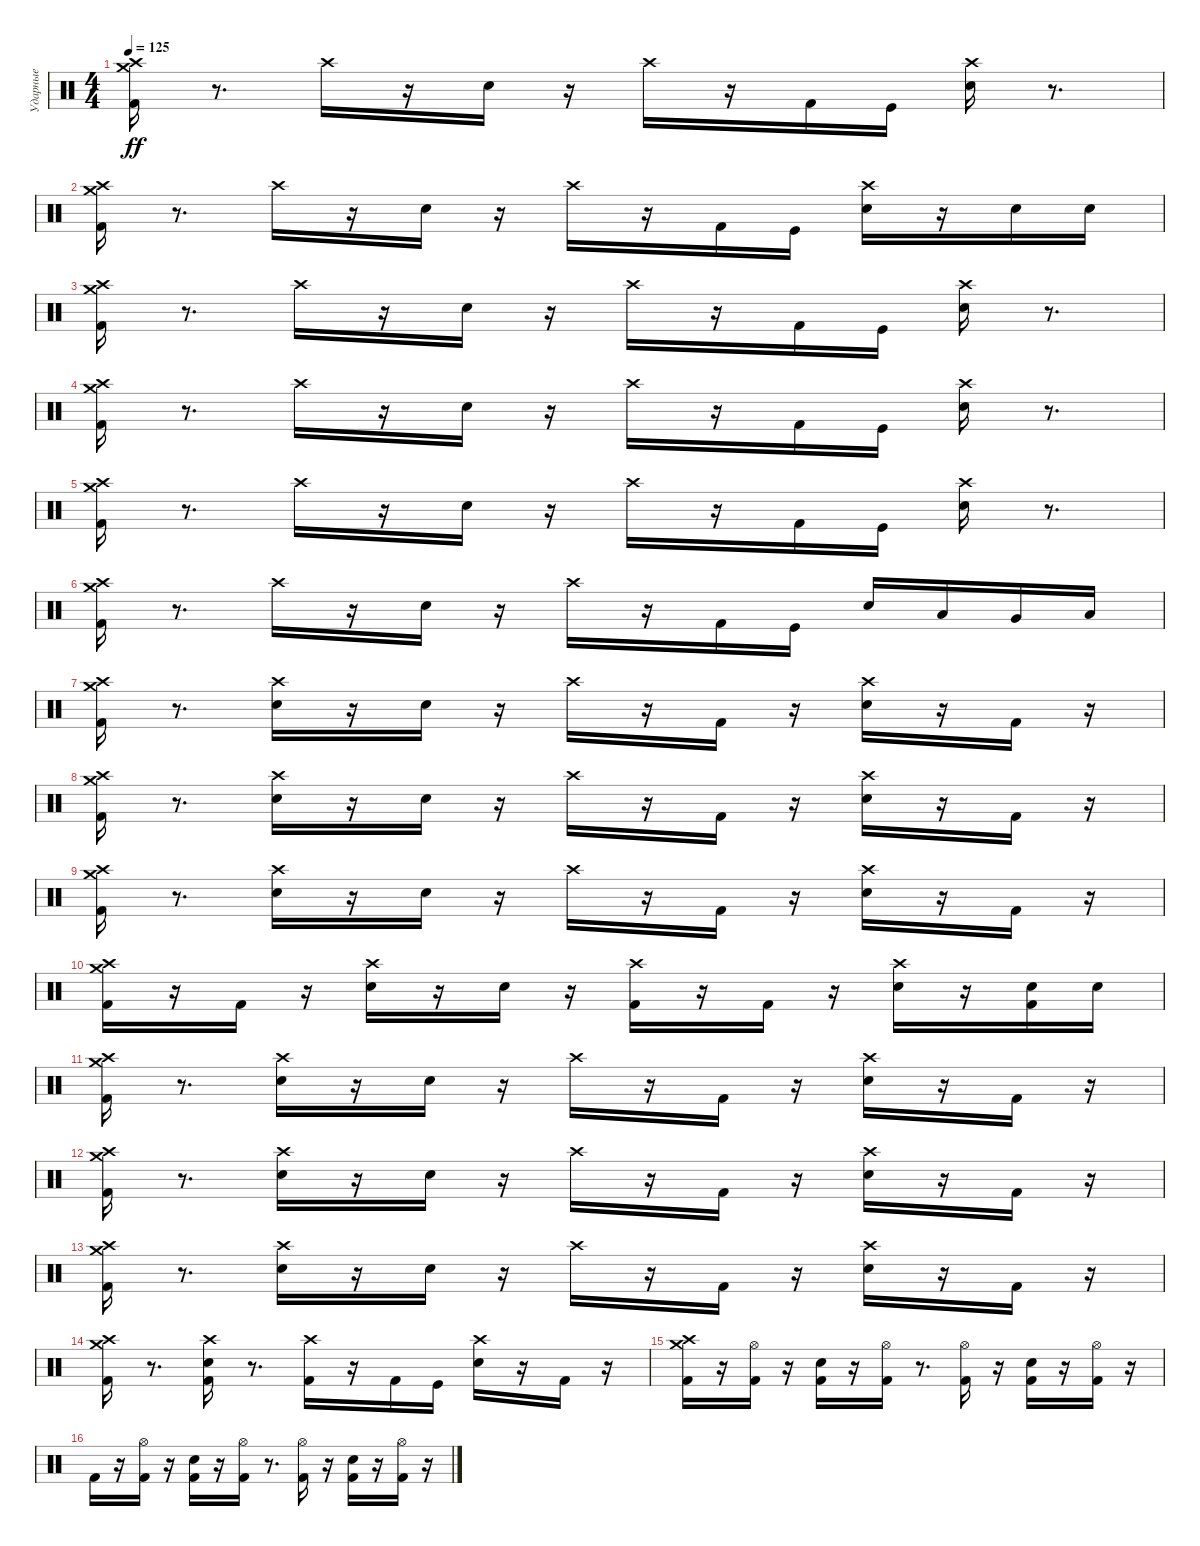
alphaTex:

\track ("Ударные" "Ударные") {instrument percussion}
\staff {score}
\articulation defaults
\ts (4 4)
\tempo 125
\clef neutral
\ks c
("Crash medium (hit)" "Crash high (hit)" "Kick (hit) 2").16{dy ff} r.8{d} "Crash high (hit)".16 r.16 "Snare (hit) 2".16 r.16 "Crash high (hit)".16 r.16 "Kick (hit) 2".16 "Kick (hit)".16 ("Snare (hit) 2" "Crash high (hit)").16 r.8{d} |
("Crash medium (hit)" "Crash high (hit)" "Kick (hit) 2").16 r.8{d} "Crash high (hit)".16 r.16 "Snare (hit) 2".16 r.16 "Crash high (hit)".16 r.16 "Kick (hit) 2".16 "Kick (hit)".16 ("Crash high (hit)" "Snare (hit) 2").16 r.16 "Snare (hit) 2".16 "Snare (hit) 2".16 |
("Crash medium (hit)" "Crash high (hit)" "Kick (hit) 2").16 r.8{d} "Crash high (hit)".16 r.16 "Snare (hit) 2".16 r.16 "Crash high (hit)".16 r.16 "Kick (hit) 2".16 "Kick (hit)".16 ("Crash high (hit)" "Snare (hit) 2").16 r.8{d} |
("Crash medium (hit)" "Crash high (hit)" "Kick (hit) 2").16 r.8{d} "Crash high (hit)".16 r.16 "Snare (hit) 2".16 r.16 "Crash high (hit)".16 r.16 "Kick (hit) 2".16 "Kick (hit)".16 ("Crash high (hit)" "Snare (hit) 2").16 r.8{d} |
("Crash medium (hit)" "Crash high (hit)" "Kick (hit) 2").16 r.8{d} "Crash high (hit)".16 r.16 "Snare (hit) 2".16 r.16 "Crash high (hit)".16 r.16 "Kick (hit) 2".16 "Kick (hit)".16 ("Crash high (hit)" "Snare (hit) 2").16 r.8{d} |
("Crash medium (hit)" "Crash high (hit)" "Kick (hit) 2").16 r.8{d} "Crash high (hit)".16 r.16 "Snare (hit) 2".16 r.16 "Crash high (hit)".16 r.16 "Kick (hit) 2".16 "Kick (hit)".16 "Snare (hit) 2".16 "Low Tom (hit)".16 "Very Low Tom (hit)".16 "Low Floor Tom (hit)".16 |
("Crash medium (hit)" "Crash high (hit)" "Kick (hit) 2").16 r.8{d} ("Crash high (hit)" "Snare (hit) 2").16 r.16 "Snare (hit) 2".16 r.16 "Crash high (hit)".16 r.16 "Kick (hit) 2".16 r.16 ("Crash high (hit)" "Snare (hit) 2").16 r.16 "Kick (hit) 2".16 r.16 |
("Crash medium (hit)" "Crash high (hit)" "Kick (hit) 2").16 r.8{d} ("Crash high (hit)" "Snare (hit) 2").16 r.16 "Snare (hit) 2".16 r.16 "Crash high (hit)".16 r.16 "Kick (hit) 2".16 r.16 ("Crash high (hit)" "Snare (hit) 2").16 r.16 "Kick (hit) 2".16 r.16 |
("Crash medium (hit)" "Crash high (hit)" "Kick (hit) 2").16 r.8{d} ("Crash high (hit)" "Snare (hit) 2").16 r.16 "Snare (hit) 2".16 r.16 "Crash high (hit)".16 r.16 "Kick (hit) 2".16 r.16 ("Crash high (hit)" "Snare (hit) 2").16 r.16 "Kick (hit) 2".16 r.16 |
("Crash medium (hit)" "Crash high (hit)" "Kick (hit) 2").16 r.16 "Kick (hit) 2".16 r.16 ("Crash high (hit)" "Snare (hit) 2").16 r.16 "Snare (hit) 2".16 r.16 ("Kick (hit) 2" "Crash high (hit)").16 r.16 "Kick (hit) 2".16 r.16 ("Crash high (hit)" "Snare (hit) 2").16 r.16 ("Snare (hit) 2" "Kick (hit) 2").16 "Snare (hit) 2".16 |
("Crash medium (hit)" "Crash high (hit)" "Kick (hit) 2").16 r.8{d} ("Crash high (hit)" "Snare (hit) 2").16 r.16 "Snare (hit) 2".16 r.16 "Crash high (hit)".16 r.16 "Kick (hit) 2".16 r.16 ("Crash high (hit)" "Snare (hit) 2").16 r.16 "Kick (hit) 2".16 r.16 |
("Crash medium (hit)" "Crash high (hit)" "Kick (hit) 2").16 r.8{d} ("Crash high (hit)" "Snare (hit) 2").16 r.16 "Snare (hit) 2".16 r.16 "Crash high (hit)".16 r.16 "Kick (hit) 2".16 r.16 ("Crash high (hit)" "Snare (hit) 2").16 r.16 "Kick (hit) 2".16 r.16 |
("Crash medium (hit)" "Crash high (hit)" "Kick (hit) 2").16 r.8{d} ("Crash high (hit)" "Snare (hit) 2").16 r.16 "Snare (hit) 2".16 r.16 "Crash high (hit)".16 r.16 "Kick (hit) 2".16 r.16 ("Crash high (hit)" "Snare (hit) 2").16 r.16 "Kick (hit) 2".16 r.16 |
("Crash medium (hit)" "Crash high (hit)" "Kick (hit) 2").16 r.8{d} ("Kick (hit) 2" "Crash high (hit)" "Snare (hit) 2").16 r.8{d} ("Kick (hit) 2" "Crash high (hit)").16 r.16 "Kick (hit) 2".16 "Kick (hit)".16 ("Crash high (hit)" "Snare (hit) 2").16 r.16 "Kick (hit) 2".16 r.16 |
("Crash medium (hit)" "Crash high (hit)" "Kick (hit) 2").16 r.16 ("Hi-Hat (open)" "Kick (hit) 2").16 r.16 ("Snare (hit) 2" "Kick (hit) 2").16 r.16 ("Hi-Hat (open)" "Kick (hit) 2").16 r.8{d} ("Hi-Hat (open)" "Kick (hit) 2").16 r.16 ("Snare (hit) 2" "Kick (hit) 2").16 r.16 ("Hi-Hat (open)" "Kick (hit) 2").16 r.16 |
"Kick (hit) 2".16 r.16 ("Hi-Hat (open)" "Kick (hit) 2").16 r.16 ("Snare (hit) 2" "Kick (hit) 2").16 r.16 ("Hi-Hat (open)" "Kick (hit) 2").16 r.8{d} ("Hi-Hat (open)" "Kick (hit) 2").16 r.16 ("Snare (hit) 2" "Kick (hit) 2").16 r.16 ("Hi-Hat (open)" "Kick (hit) 2").16 r.16
